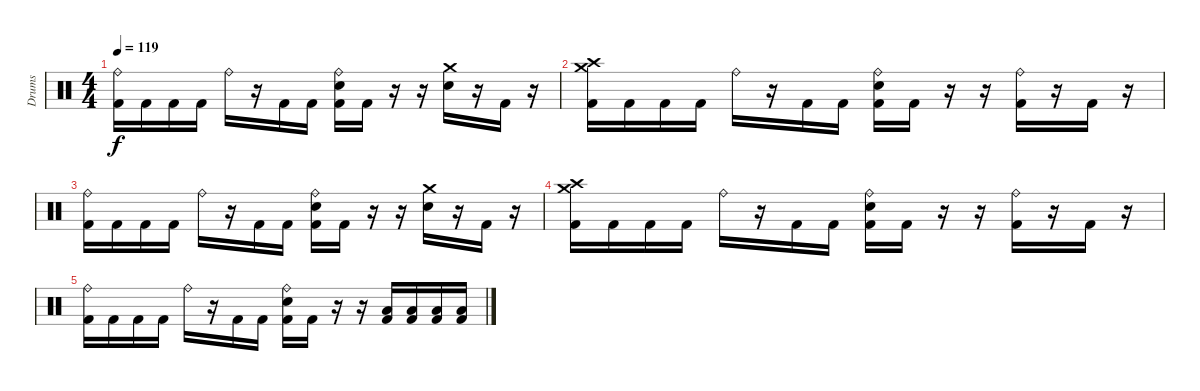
\track ("Drums" "Drums") {instrument percussion}
\staff {score}
\articulation defaults
\ts (4 4)
\tempo 119
\clef neutral
\ks c
("Ride (bell)" "Kick (hit) 2").16{dy f} "Kick (hit) 2".16 "Kick (hit) 2".16 "Kick (hit) 2".16 "Ride (bell)".16 r.16 "Kick (hit) 2".16 "Kick (hit) 2".16 ("Ride (bell)" "Electric Snare (hit)" "Kick (hit) 2").16 "Kick (hit) 2".16 r.16 r.16 ("Crash medium (hit)" "Electric Snare (hit)").16 r.16 "Kick (hit) 2".16 r.16 |
("Crash high (hit)" "Crash medium (hit)" "Kick (hit) 2").16 "Kick (hit) 2".16 "Kick (hit) 2".16 "Kick (hit) 2".16 "Ride (bell)".16 r.16 "Kick (hit) 2".16 "Kick (hit) 2".16 ("Ride (bell)" "Electric Snare (hit)" "Kick (hit) 2").16 "Kick (hit) 2".16 r.16 r.16 ("Ride (bell)" "Kick (hit) 2").16 r.16 "Kick (hit) 2".16 r.16 |
("Ride (bell)" "Kick (hit) 2").16 "Kick (hit) 2".16 "Kick (hit) 2".16 "Kick (hit) 2".16 "Ride (bell)".16 r.16 "Kick (hit) 2".16 "Kick (hit) 2".16 ("Ride (bell)" "Electric Snare (hit)" "Kick (hit) 2").16 "Kick (hit) 2".16 r.16 r.16 ("Crash medium (hit)" "Electric Snare (hit)").16 r.16 "Kick (hit) 2".16 r.16 |
("Crash high (hit)" "Crash medium (hit)" "Kick (hit) 2").16 "Kick (hit) 2".16 "Kick (hit) 2".16 "Kick (hit) 2".16 "Ride (bell)".16 r.16 "Kick (hit) 2".16 "Kick (hit) 2".16 ("Ride (bell)" "Electric Snare (hit)" "Kick (hit) 2").16 "Kick (hit) 2".16 r.16 r.16 ("Ride (bell)" "Kick (hit) 2").16 r.16 "Kick (hit) 2".16 r.16 |
("Ride (bell)" "Kick (hit) 2").16 "Kick (hit) 2".16 "Kick (hit) 2".16 "Kick (hit) 2".16 "Ride (bell)".16 r.16 "Kick (hit) 2".16 "Kick (hit) 2".16 ("Ride (bell)" "Electric Snare (hit)" "Kick (hit) 2").16 "Kick (hit) 2".16 r.16 r.16 ("Low Floor Tom (hit)" "Kick (hit) 2").16 ("Low Floor Tom (hit)" "Kick (hit) 2").16 ("Low Floor Tom (hit)" "Kick (hit) 2").16 ("Low Floor Tom (hit)" "Kick (hit) 2").16
